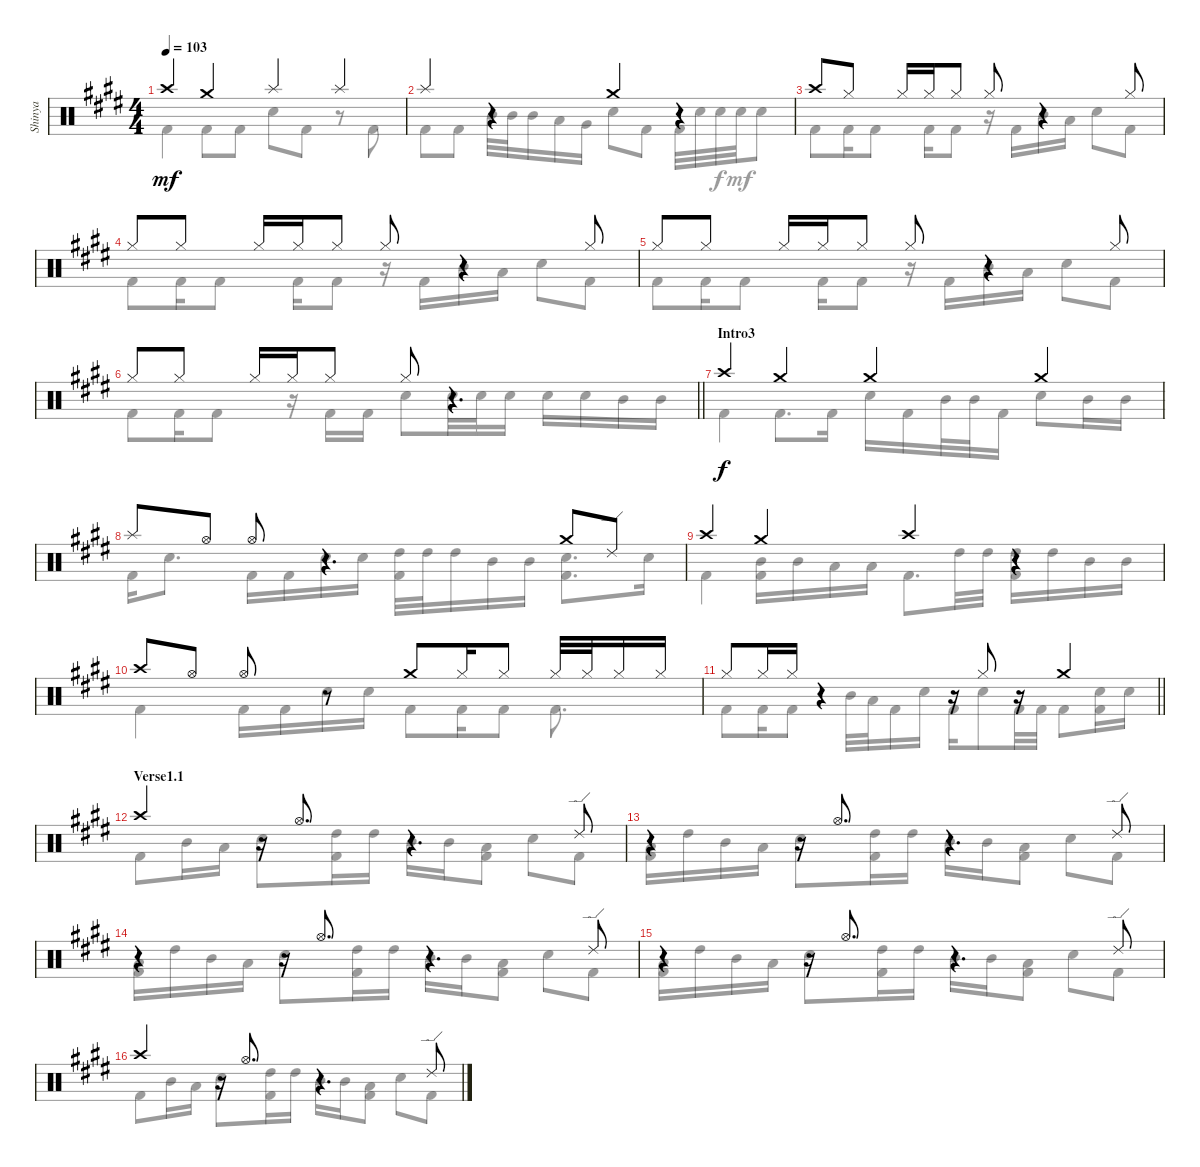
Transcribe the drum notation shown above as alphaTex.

\track ("Shinya" "Shinya") {instrument percussion}
\staff {score}
\articulation defaults
\voice
\ts (4 4)
\tempo 103
\clef neutral
\ks c#minor "Crash high (hit)".4{dy mf} "Crash medium (hit)".4 "Splash (hit)".4 "Splash (hit)".4
|
"Splash (hit)".4 r.4 "Crash medium (hit)".4 r.4 |
"Crash high (hit)".8 "Hi-Hat (closed)".8 "Hi-Hat (closed)".16 "Hi-Hat (closed)".16 "Hi-Hat (closed)".8 "Hi-Hat (closed)".8 r.4 "Hi-Hat (closed)".8 |
"Hi-Hat (closed)".8 "Hi-Hat (closed)".8 "Hi-Hat (closed)".16 "Hi-Hat (closed)".16 "Hi-Hat (closed)".8 "Hi-Hat (closed)".8 r.4 "Hi-Hat (closed)".8 |
"Hi-Hat (closed)".8 "Hi-Hat (closed)".8 "Hi-Hat (closed)".16 "Hi-Hat (closed)".16 "Hi-Hat (closed)".8 "Hi-Hat (closed)".8 r.4 "Hi-Hat (closed)".8 |
\barLineRight lightlight "Hi-Hat (closed)".8 "Hi-Hat (closed)".8 "Hi-Hat (closed)".16 "Hi-Hat (closed)".16 "Hi-Hat (closed)".8 "Hi-Hat (closed)".8
r.4{d} |
\section ("" "Intro3")
"Crash high (hit)".4{dy f} "Crash medium (hit)".4 "Crash medium (hit)".4 "Crash medium (hit)".4 |
"Splash (hit)".8 "Hi-Hat (open)".8 "Hi-Hat (open)".8 r.4{d} "Crash medium (hit)".8 "Ride (edge) 2".8 |
"Crash high (hit)".4 "Crash medium (hit)".4 "Crash high (hit)".4 r.4 |
"Crash high (hit)".8 "Hi-Hat (open)".8 "Hi-Hat (open)".8 r.8 "Crash medium (hit)".8 "Hi-Hat (closed)".16 "Hi-Hat (closed)".8 "Hi-Hat (closed)".32 "Hi-Hat (closed)".32 "Hi-Hat (closed)".16 "Hi-Hat (closed)".16 |
\barLineRight lightlight "Hi-Hat (closed)".8 "Hi-Hat (closed)".16 "Hi-Hat (closed)".16
r.4 r.16 "Hi-Hat (closed)".8 r.16 "Crash medium (hit)".4 |
\section ("" "Verse1.1")
"Crash high (hit)".4 r.16 "Hi-Hat (open)".8{d} r.4{d} "Ride (edge) 2".8 |
r.4 r.16 "Hi-Hat (open)".8{d} r.4{d} "Ride (edge) 2".8 |
r.4 r.16 "Hi-Hat (open)".8{d} r.4{d} "Ride (edge) 2".8 |
r.4 r.16 "Hi-Hat (open)".8{d} r.4{d} "Ride (edge) 2".8 |
"Crash high (hit)".4 r.16 "Hi-Hat (open)".8{d} r.4{d} "Ride (edge) 2".8
\voice
\clef neutral
\ottava regular
\simile none
\ks c#minor "Kick (hit) 2".4{dy mf} "Kick (hit) 2".8 "Kick (hit) 2".8 "Snare (hit) 2".8 "Kick (hit) 2".8
r.8 "Kick (hit) 2".8 |
"Kick (hit) 2".8 "Kick (hit) 2".8 "Mid Tom (hit)".32 "Mid Tom (hit)".32 "Mid Tom (hit)".16 "Low Tom (hit)".16 "Very Low Tom (hit)".16 "Snare (hit) 2".8 "Kick (hit) 2".8 "Kick (hit) 2".32 "Snare (hit) 2".32 "Snare (hit) 2".32{dy f} "Snare (hit) 2".32{dy mf} "Snare (hit) 2".8 |
"Kick (hit) 2".8 "Kick (hit) 2".16 "Kick (hit) 2".8 "Kick (hit) 2".16 "Kick (hit) 2".8 r.16 "Kick (hit) 2".16 "Mid Tom (hit)".16 "Low Tom (hit)".16 "Snare (hit) 2".8 "Kick (hit) 2".8 |
"Kick (hit) 2".8 "Kick (hit) 2".16 "Kick (hit) 2".8 "Kick (hit) 2".16 "Kick (hit) 2".8 r.16 "Kick (hit) 2".16 "Mid Tom (hit)".16 "Low Tom (hit)".16 "Snare (hit) 2".8 "Kick (hit) 2".8 |
"Kick (hit) 2".8 "Kick (hit) 2".16 "Kick (hit) 2".8 "Kick (hit) 2".16 "Kick (hit) 2".8 r.16 "Kick (hit) 2".16 "Mid Tom (hit)".16 "Low Tom (hit)".16 "Snare (hit) 2".8 "Kick (hit) 2".8 |
\barLineRight lightlight "Kick (hit) 2".8 "Kick (hit) 2".16 "Kick (hit) 2".8
r.16 "Kick (hit) 2".16 "Kick (hit) 2".16 "Snare (hit) 2".8 "Snare (hit) 2".32 "Snare (hit) 2".32 "Snare (hit) 2".16 "Snare (hit) 2".16 "Snare (hit) 2".16 "Mid Tom (hit)".16 "Mid Tom (hit)".16 |
"Kick (hit) 2".4{dy f} "Kick (hit) 2".8{d} "Kick (hit) 2".16 "Snare (hit) 2".16 "Kick (hit) 2".16 "Mid Tom (hit)".32 "Mid Tom (hit)".32 "Kick (hit) 2".16 "Snare (hit) 2".8 "Mid Tom (hit)".16 "Mid Tom (hit)".16 |
"Kick (hit) 2".16 "Snare (hit) 2".8{d} "Kick (hit) 2".16 "Kick (hit) 2".16 "Snare (hit) 2".16 "Snare (hit) 2".16 ("High Tom (hit)" "Kick (hit) 2").32 "High Tom (hit)".32 "High Tom (hit)".16 "Mid Tom (hit)".16 "Mid Tom (hit)".16 ("Snare (hit) 2" "Kick (hit) 2").8{d} "Snare (hit) 2".16 |
"Kick (hit) 2".4 ("Mid Tom (hit)" "Kick (hit) 2").16 "Mid Tom (hit)".16 "Low Tom (hit)".16 "Low Tom (hit)".16 "Kick (hit) 2".8{d} "High Tom (hit)".32 "High Tom (hit)".32 ("High Tom (hit)" "Kick (hit) 2").16 "High Tom (hit)".16 "Mid Tom (hit)".16 "Mid Tom (hit)".16 |
"Kick (hit) 2".4 "Kick (hit) 2".16 "Kick (hit) 2".16 "Snare (hit) 2".16 "Snare (hit) 2".16 "Kick (hit) 2".8 "Kick (hit) 2".16 "Kick (hit) 2".8 "Kick (hit) 2".8{d} |
\barLineRight lightlight "Kick (hit) 2".8 "Kick (hit) 2".16 "Kick (hit) 2".8 "Mid Tom (hit)".32 "Low Tom (hit)".32 "Kick (hit) 2".16 "Snare (hit) 2".16 "Kick (hit) 2".16 "Snare (hit) 2".8 "Kick (hit) 2".32 "Kick (hit) 2".32 "Kick (hit) 2".8
("Snare (hit) 2" "Kick (hit) 2").16 "Snare (hit) 2".16 |
"Kick (hit) 2".8 "Mid Tom (hit)".16 "Low Tom (hit)".16 "Snare (hit) 2".8 ("High Tom (hit)" "Kick (hit) 2").16 "High Tom (hit)".16 "Mid Tom (hit)".16 "Mid Tom (hit)".16 ("Low Tom (hit)" "Kick (hit) 2").8 "Snare (hit) 2".8 "Kick (hit) 2".8 |
("Low Tom (hit)" "Kick (hit) 2").16 "High Tom (hit)".16 "Mid Tom (hit)".16 "Low Tom (hit)".16 "Snare (hit) 2".8 ("High Tom (hit)" "Kick (hit) 2").16 "High Tom (hit)".16 "Mid Tom (hit)".16 "Mid Tom (hit)".16 ("Low Tom (hit)" "Kick (hit) 2").8 "Snare (hit) 2".8 "Kick (hit) 2".8 |
("Low Tom (hit)" "Kick (hit) 2").16 "High Tom (hit)".16 "Mid Tom (hit)".16 "Low Tom (hit)".16 "Snare (hit) 2".8 ("High Tom (hit)" "Kick (hit) 2").16 "High Tom (hit)".16 "Mid Tom (hit)".16 "Mid Tom (hit)".16 ("Low Tom (hit)" "Kick (hit) 2").8 "Snare (hit) 2".8 "Kick (hit) 2".8 |
("Low Tom (hit)" "Kick (hit) 2").16 "High Tom (hit)".16 "Mid Tom (hit)".16 "Low Tom (hit)".16 "Snare (hit) 2".8 ("High Tom (hit)" "Kick (hit) 2").16 "High Tom (hit)".16 "Mid Tom (hit)".16 "Mid Tom (hit)".16 ("Low Tom (hit)" "Kick (hit) 2").8 "Snare (hit) 2".8 "Kick (hit) 2".8 |
"Kick (hit) 2".8 "Mid Tom (hit)".16 "Low Tom (hit)".16 "Snare (hit) 2".8 ("High Tom (hit)" "Kick (hit) 2").16 "High Tom (hit)".16 "Mid Tom (hit)".16 "Mid Tom (hit)".16 ("Low Tom (hit)" "Kick (hit) 2").8 "Snare (hit) 2".8 "Kick (hit) 2".8
